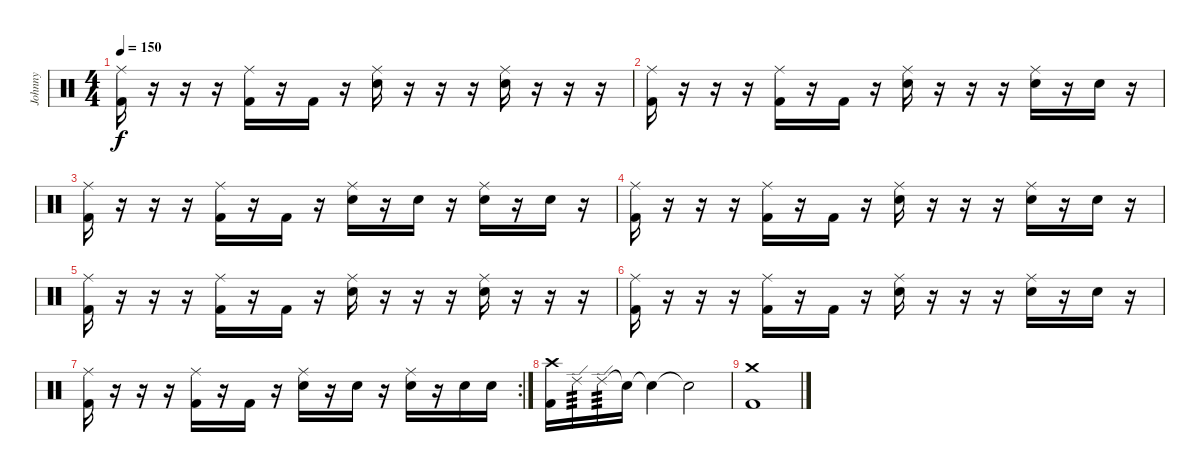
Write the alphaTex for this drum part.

\track ("Johnny" "Johnny") {instrument percussion}
\staff {score}
\articulation defaults
\ts (4 4)
\tempo 150
\clef neutral
\ks c
("Ride (middle)" "Kick (hit) 2").16{dy f} r.16 r.16 r.16 ("Ride (middle)" "Kick (hit) 2").16 r.16 "Kick (hit) 2".16 r.16 ("Ride (middle)" "Snare (hit) 2").16 r.16 r.16 r.16 ("Ride (middle)" "Snare (hit) 2").16 r.16 r.16 r.16 |
("Ride (middle)" "Kick (hit) 2").16 r.16 r.16 r.16 ("Ride (middle)" "Kick (hit) 2").16 r.16 "Kick (hit) 2".16 r.16 ("Ride (middle)" "Snare (hit) 2").16 r.16 r.16 r.16 ("Ride (middle)" "Snare (hit) 2").16 r.16 "Snare (hit) 2".16 r.16 |
("Ride (middle)" "Kick (hit) 2").16 r.16 r.16 r.16 ("Ride (middle)" "Kick (hit) 2").16 r.16 "Kick (hit) 2".16 r.16 ("Ride (middle)" "Snare (hit) 2").16 r.16 "Snare (hit) 2".16 r.16 ("Ride (middle)" "Snare (hit) 2").16 r.16 "Snare (hit) 2".16 r.16 |
("Ride (middle)" "Kick (hit) 2").16 r.16 r.16 r.16 ("Ride (middle)" "Kick (hit) 2").16 r.16 "Kick (hit) 2".16 r.16 ("Ride (middle)" "Snare (hit) 2").16 r.16 r.16 r.16 ("Ride (middle)" "Snare (hit) 2").16 r.16 "Snare (hit) 2".16 r.16 |
("Ride (middle)" "Kick (hit) 2").16 r.16 r.16 r.16 ("Ride (middle)" "Kick (hit) 2").16 r.16 "Kick (hit) 2".16 r.16 ("Ride (middle)" "Snare (hit) 2").16 r.16 r.16 r.16 ("Ride (middle)" "Snare (hit) 2").16 r.16 r.16 r.16 |
("Ride (middle)" "Kick (hit) 2").16 r.16 r.16 r.16 ("Ride (middle)" "Kick (hit) 2").16 r.16 "Kick (hit) 2".16 r.16 ("Ride (middle)" "Snare (hit) 2").16 r.16 r.16 r.16 ("Ride (middle)" "Snare (hit) 2").16 r.16 "Snare (hit) 2".16 r.16 |
\rc 2
("Ride (middle)" "Kick (hit) 2").16 r.16 r.16 r.16 ("Ride (middle)" "Kick (hit) 2").16 r.16 "Kick (hit) 2".16 r.16 ("Ride (middle)" "Snare (hit) 2").16 r.16 "Snare (hit) 2".16 r.16 ("Ride (middle)" "Snare (hit) 2").16 r.16 "Snare (hit) 2".16 "Snare (hit) 2".16 |
("Kick (hit) 2" "Crash high (hit)").16 "Ride (edge) 2".16{tp 3 volume 0} "Ride (edge) 2".16{tp 3 volume 13} "Snare (hit)"{t}.16 "Snare (hit)"{t}.4 "Snare (hit)"{t}.2 |
("Crash medium (hit)" "Kick (hit) 2").1
